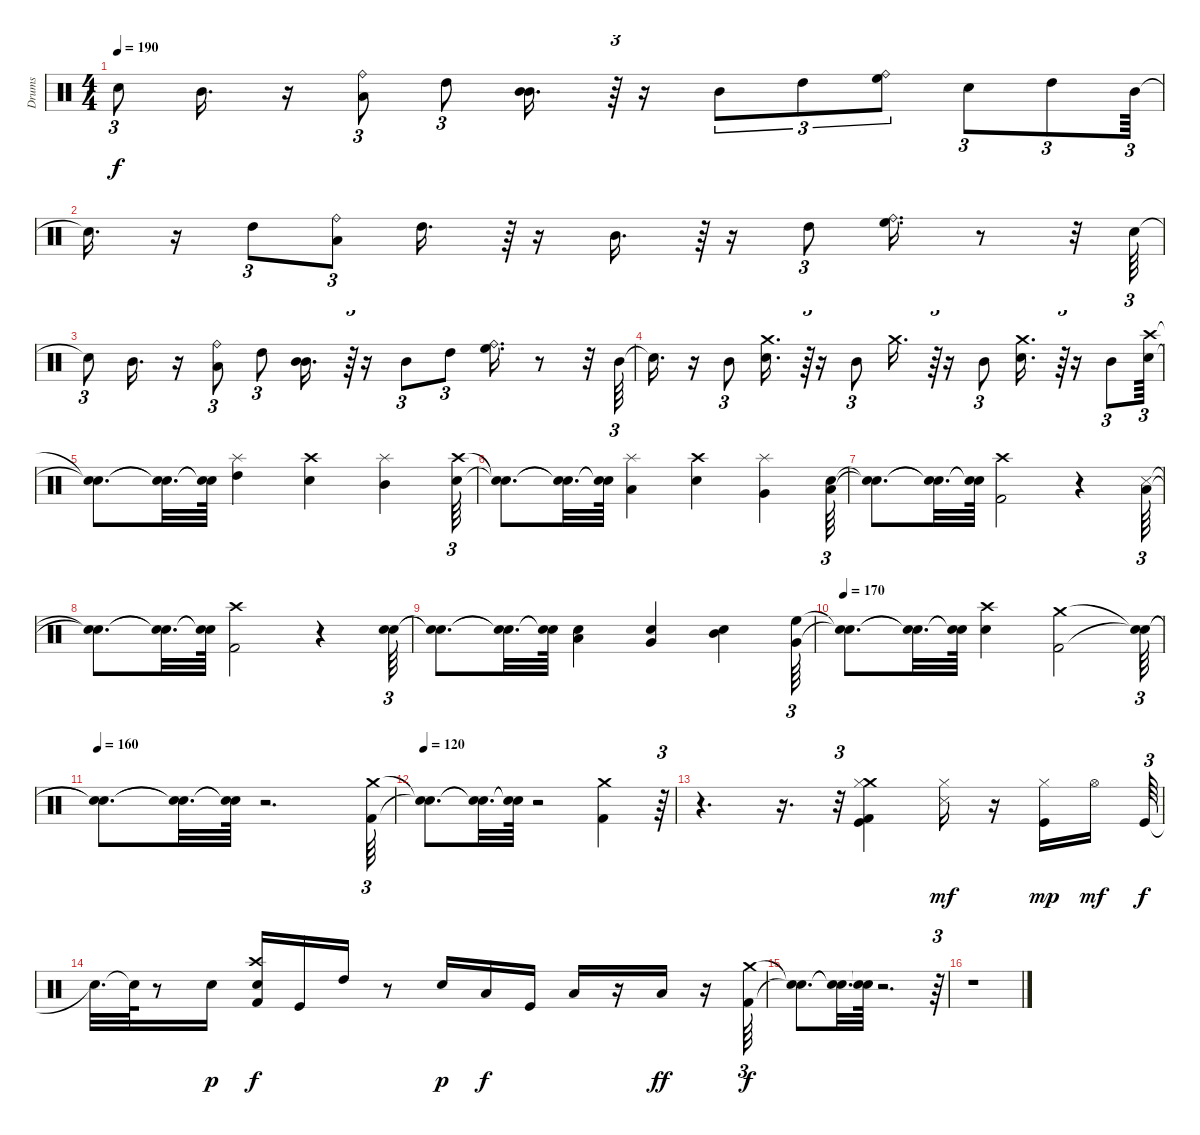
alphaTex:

\track ("Drums" "Drums") {instrument percussion}
\staff {score}
\articulation defaults
\ts (4 4)
\tempo 190
\clef neutral
\ks c "Snare (hit)"{t}.8{tu (3 2) dy f} "Mid Tom (hit)".16{d}
r.16 ("Low Floor Tom (hit)" "Ride (bell)").8{tu (3 2)} "High Tom (hit)".8{tu (3 2)} ("Mid Tom (hit)" "Mid Tom (hit)").16{d} r.64{tu (3 2)} r.16 "Mid Tom (hit)".8{tu (3 2)} "High Tom (hit)".8{tu (3 2)} ("High Floor Tom (hit)" "Ride (bell)").8{tu (3 2)} "Electric Snare (hit)".8{tu (3 2)} "High Tom (hit)".8{tu (3 2)} "Mid Tom (hit)".64{tu (3 2)} |
"Snare (hit)"{t}.16{d} r.16 "High Tom (hit)".8{tu (3 2)} ("Low Floor Tom (hit)" "Ride (bell)").8{tu (3 2)} "High Tom (hit)".16{d} r.64{tu (3 2)} r.16 "Mid Tom (hit)".16{d} r.64{tu (3 2)} r.16 "High Tom (hit)".8{tu (3 2)} ("High Floor Tom (hit)" "Ride (bell)").16{d} r.8 r.32 "Electric Snare (hit)".64{tu (3 2)} |
"Snare (hit)"{t}.8{tu (3 2)} "Mid Tom (hit)".16{d} r.16 ("Low Floor Tom (hit)" "Ride (bell)").8{tu (3 2)} "High Tom (hit)".8{tu (3 2)} ("Mid Tom (hit)" "Mid Tom (hit)").16{d} r.64{tu (3 2)} r.16 "Mid Tom (hit)".8{tu (3 2)} "High Tom (hit)".8{tu (3 2)} ("High Floor Tom (hit)" "Ride (bell)").16{d} r.8 r.32 "Mid Tom (hit)".64{tu (3 2)} |
"Snare (hit)"{t}.16{d} r.16 "Mid Tom (hit)".8{tu (3 2)} ("Crash medium (hit)" "Electric Snare (hit)").16{d} r.64{tu (3 2)} r.16 "Mid Tom (hit)".8{tu (3 2)} "Crash medium (hit)".16{d} r.64{tu (3 2)} r.16 "Mid Tom (hit)".8{tu (3 2)} ("Crash medium (hit)" "Electric Snare (hit)").16{d} r.64{tu (3 2)} r.16 "Mid Tom (hit)".8{tu (3 2)} ("Crash high (hit)" "Electric Snare (hit)").64{tu (3 2)} |
("Snare (hit)"{t} "Snare (hit)"{t}).8{d} ("Snare (hit)"{t} "Snare (hit)"{t}).32{d} ("Snare (hit)"{t} "Snare (hit)"{t}).64 ("Splash (hit)" "High Tom (hit)").4 ("Crash high (hit)" "Electric Snare (hit)").4 ("Splash (hit)" "Mid Tom (hit)").4 ("Crash high (hit)" "Electric Snare (hit)").64{tu (3 2)} |
("Snare (hit)"{t} "Snare (hit)"{t}).8{d} ("Snare (hit)"{t} "Snare (hit)"{t}).32{d} ("Snare (hit)"{t} "Snare (hit)"{t}).64 ("Splash (hit)" "Low Tom (hit)").4 ("Electric Snare (hit)" "Crash high (hit)").4 ("Splash (hit)" "Very Low Tom (hit)").4 ("Snare (hit) 2" "Low Tom (hit)").64{tu (3 2)} |
("Snare (hit)"{t} "Snare (hit)"{t}).8{d} ("Snare (hit)"{t} "Snare (hit)"{t}).32{d} ("Snare (hit)"{t} "Snare (hit)"{t}).64 ("Kick (hit) 2" "Crash high (hit)").2 r.4 ("Snare (side stick) 3" "Low Tom (hit)").64{tu (3 2)} |
("Snare (hit)"{t} "Snare (hit)"{t}).8{d} ("Snare (hit)"{t} "Snare (hit)"{t}).32{d} ("Snare (hit)"{t} "Snare (hit)"{t}).64 ("Kick (hit) 2" "Crash high (hit)").2 r.4 ("Snare (hit)" "Snare (hit) 2").64{tu (3 2)} |
("Snare (hit)"{t} "Snare (hit)"{t}).8{d} ("Snare (hit)"{t} "Snare (hit)"{t}).32{d} ("Snare (hit)"{t} "Snare (hit)"{t}).64 ("Electric Snare (hit)" "Low Floor Tom (hit)").4 ("Very Low Tom (hit)" "Snare (hit) 2").4 ("Electric Snare (hit)" "Mid Tom (hit)").4 ("High Floor Tom (hit)" "Very Low Tom (hit)").64{tu (3 2)} |
\tempo 170
("Snare (hit)"{t} "Snare (hit)"{t}).8{d} ("Snare (hit)"{t} "Snare (hit)"{t}).32{d} ("Snare (hit)"{t} "Snare (hit)"{t}).64 ("Snare (hit) 2" "Crash high (hit)").4 ("Crash medium (hit)" "Kick (hit) 2").2 ("Snare (hit)"{t} "Snare (hit)"{t}).64{tu (3 2)} |
\tempo 160
("Snare (hit)"{t} "Snare (hit)"{t}).8{d} ("Snare (hit)"{t} "Snare (hit)"{t}).32{d} ("Snare (hit)"{t} "Snare (hit)"{t}).64 r.2{d} ("Crash medium (hit)" "Kick (hit) 2").64{tu (3 2)} |
\tempo 120
("Snare (hit)"{t} "Snare (hit)"{t}).8{d} ("Snare (hit)"{t} "Snare (hit)"{t}).32{d} ("Snare (hit)"{t} "Snare (hit)"{t}).64 r.2 ("Crash medium (hit)" "Kick (hit) 2").4 r.64{tu (3 2)} |
r.4{d} r.16{d} r.32{tu (3 2)} ("Crash medium (hit)" "Kick (hit) 2" "Kick (hit)" "Hi-Hat (closed)").4 ("Hi-Hat (closed)" "Snare (side stick) 3").16{dy mf} r.16 ("Kick (hit)" "Hi-Hat (closed)").16{dy mp} "Hi-Hat (open)".16{dy mf} "Kick (hit)".64{tu (3 2) dy f} |
"Snare (hit)"{t}.32{d} "Snare (hit)"{t}.64 r.8 "Snare (hit) 2".16{dy p} ("Kick (hit) 2" "Crash high (hit)" "Snare (hit) 2").16{dy f} "Kick (hit)".16 "High Tom (hit)".16 r.8 "Snare (hit) 2".16{dy p} "Low Tom (hit)".16{dy f} "Kick (hit)".16 "Low Floor Tom (hit)".16 r.16 "Low Floor Tom (hit)".16{dy ff} r.16 ("Crash medium (hit)" "Kick (hit) 2").64{tu (3 2) dy f} |
("Snare (hit)"{t} "Snare (hit)"{t}).8{d} ("Snare (hit)"{t} "Snare (hit)"{t}).32{d} ("Snare (hit)"{t} "Snare (hit)"{t}).64 r.2{d} r.64{tu (3 2)} |
r.1
